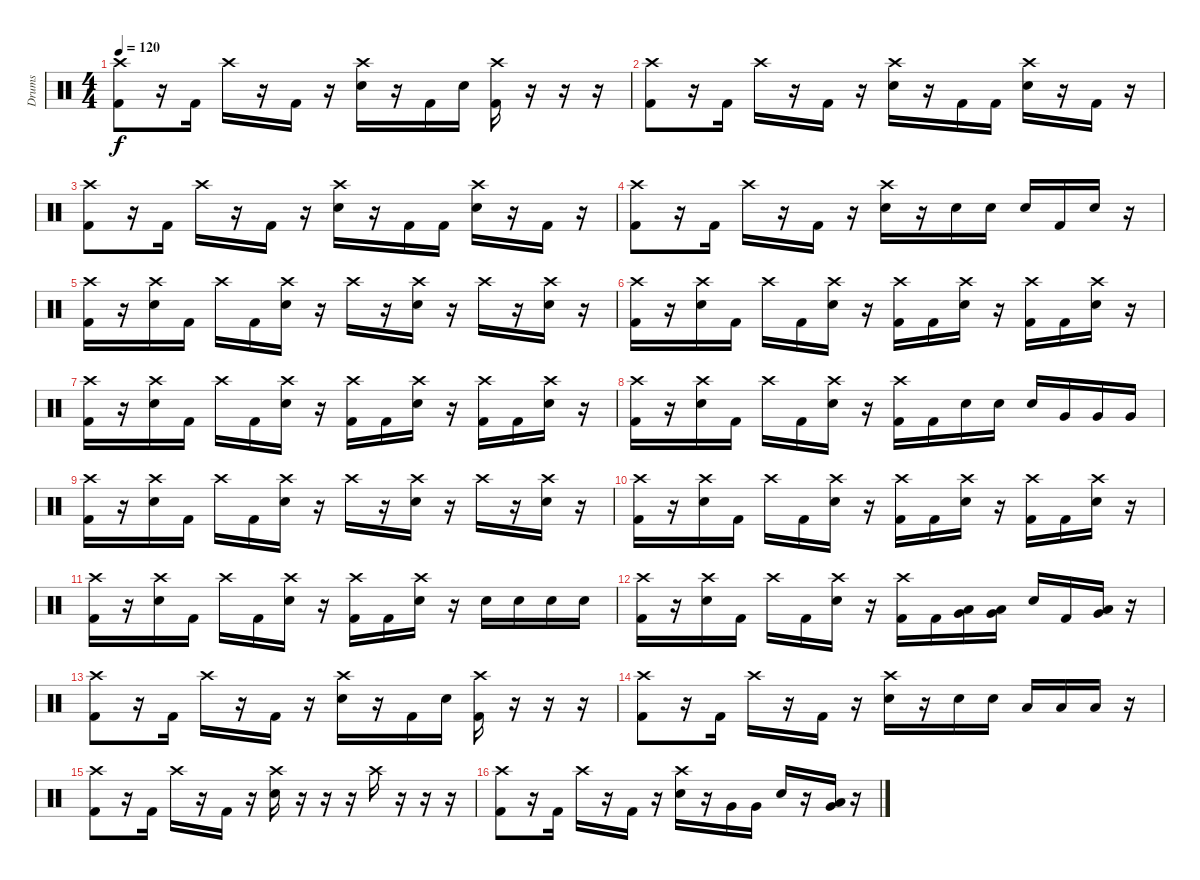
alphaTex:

\track ("Drums" "Drums") {instrument percussion}
\staff {score}
\articulation defaults
\ts (4 4)
\tempo 120
\clef neutral
\ks c
("Crash high (hit)" "Kick (hit) 2").8{dy f} r.16 "Kick (hit) 2".16 "Crash high (hit)".16 r.16 "Kick (hit) 2".16 r.16 ("Crash high (hit)" "Electric Snare (hit)").16 r.16 "Kick (hit) 2".16 "Electric Snare (hit)".16 ("Crash high (hit)" "Kick (hit) 2").16 r.16 r.16 r.16 |
("Crash high (hit)" "Kick (hit) 2").8 r.16 "Kick (hit) 2".16 "Crash high (hit)".16 r.16 "Kick (hit) 2".16 r.16 ("Crash high (hit)" "Electric Snare (hit)").16 r.16 "Kick (hit) 2".16 "Kick (hit) 2".16 ("Crash high (hit)" "Electric Snare (hit)").16 r.16 "Kick (hit) 2".16 r.16 |
("Crash high (hit)" "Kick (hit) 2").8 r.16 "Kick (hit) 2".16 "Crash high (hit)".16 r.16 "Kick (hit) 2".16 r.16 ("Crash high (hit)" "Electric Snare (hit)").16 r.16 "Kick (hit) 2".16 "Kick (hit) 2".16 ("Crash high (hit)" "Electric Snare (hit)").16 r.16 "Kick (hit) 2".16 r.16 |
("Crash high (hit)" "Kick (hit) 2").8 r.16 "Kick (hit) 2".16 "Crash high (hit)".16 r.16 "Kick (hit) 2".16 r.16 ("Crash high (hit)" "Electric Snare (hit)").16 r.16 "Electric Snare (hit)".16 "Electric Snare (hit)".16 "Electric Snare (hit)".16 "Kick (hit) 2".16 "Electric Snare (hit)".16 r.16 |
("Crash high (hit)" "Kick (hit) 2").16 r.16 ("Crash high (hit)" "Electric Snare (hit)").16 "Kick (hit) 2".16 "Crash high (hit)".16 "Kick (hit) 2".16 ("Crash high (hit)" "Electric Snare (hit)").16 r.16 "Crash high (hit)".16 r.16 ("Crash high (hit)" "Electric Snare (hit)").16 r.16 "Crash high (hit)".16 r.16 ("Crash high (hit)" "Electric Snare (hit)").16 r.16 |
("Crash high (hit)" "Kick (hit) 2").16 r.16 ("Crash high (hit)" "Electric Snare (hit)").16 "Kick (hit) 2".16 "Crash high (hit)".16 "Kick (hit) 2".16 ("Crash high (hit)" "Electric Snare (hit)").16 r.16 ("Crash high (hit)" "Kick (hit) 2").16 "Kick (hit) 2".16 ("Crash high (hit)" "Electric Snare (hit)").16 r.16 ("Crash high (hit)" "Kick (hit) 2").16 "Kick (hit) 2".16 ("Crash high (hit)" "Electric Snare (hit)").16 r.16 |
("Crash high (hit)" "Kick (hit) 2").16 r.16 ("Crash high (hit)" "Electric Snare (hit)").16 "Kick (hit) 2".16 "Crash high (hit)".16 "Kick (hit) 2".16 ("Crash high (hit)" "Electric Snare (hit)").16 r.16 ("Crash high (hit)" "Kick (hit) 2").16 "Kick (hit) 2".16 ("Crash high (hit)" "Electric Snare (hit)").16 r.16 ("Crash high (hit)" "Kick (hit) 2").16 "Kick (hit) 2".16 ("Crash high (hit)" "Electric Snare (hit)").16 r.16 |
("Crash high (hit)" "Kick (hit) 2").16 r.16 ("Crash high (hit)" "Electric Snare (hit)").16 "Kick (hit) 2".16 "Crash high (hit)".16 "Kick (hit) 2".16 ("Crash high (hit)" "Electric Snare (hit)").16 r.16 ("Crash high (hit)" "Kick (hit) 2").16 "Kick (hit) 2".16 "Electric Snare (hit)".16 "Electric Snare (hit)".16 "Electric Snare (hit)".16 "Very Low Tom (hit)".16 "Very Low Tom (hit)".16 "Very Low Tom (hit)".16 |
("Crash high (hit)" "Kick (hit) 2").16 r.16 ("Crash high (hit)" "Electric Snare (hit)").16 "Kick (hit) 2".16 "Crash high (hit)".16 "Kick (hit) 2".16 ("Crash high (hit)" "Electric Snare (hit)").16 r.16 "Crash high (hit)".16 r.16 ("Crash high (hit)" "Electric Snare (hit)").16 r.16 "Crash high (hit)".16 r.16 ("Crash high (hit)" "Electric Snare (hit)").16 r.16 |
("Crash high (hit)" "Kick (hit) 2").16 r.16 ("Crash high (hit)" "Electric Snare (hit)").16 "Kick (hit) 2".16 "Crash high (hit)".16 "Kick (hit) 2".16 ("Crash high (hit)" "Electric Snare (hit)").16 r.16 ("Crash high (hit)" "Kick (hit) 2").16 "Kick (hit) 2".16 ("Crash high (hit)" "Electric Snare (hit)").16 r.16 ("Crash high (hit)" "Kick (hit) 2").16 "Kick (hit) 2".16 ("Crash high (hit)" "Electric Snare (hit)").16 r.16 |
("Crash high (hit)" "Kick (hit) 2").16 r.16 ("Crash high (hit)" "Electric Snare (hit)").16 "Kick (hit) 2".16 "Crash high (hit)".16 "Kick (hit) 2".16 ("Crash high (hit)" "Electric Snare (hit)").16 r.16 ("Crash high (hit)" "Kick (hit) 2").16 "Kick (hit) 2".16 ("Crash high (hit)" "Electric Snare (hit)").16 r.16 "Electric Snare (hit)".16 "Electric Snare (hit)".16 "Electric Snare (hit)".16 "Electric Snare (hit)".16 |
("Crash high (hit)" "Kick (hit) 2").16 r.16 ("Crash high (hit)" "Electric Snare (hit)").16 "Kick (hit) 2".16 "Crash high (hit)".16 "Kick (hit) 2".16 ("Crash high (hit)" "Electric Snare (hit)").16 r.16 ("Crash high (hit)" "Kick (hit) 2").16 "Kick (hit) 2".16 ("Low Floor Tom (hit)" "Very Low Tom (hit)").16 ("Low Floor Tom (hit)" "Very Low Tom (hit)").16 "Electric Snare (hit)".16 "Kick (hit) 2".16 ("Low Floor Tom (hit)" "Very Low Tom (hit)").16 r.16 |
("Crash high (hit)" "Kick (hit) 2").8 r.16 "Kick (hit) 2".16 "Crash high (hit)".16 r.16 "Kick (hit) 2".16 r.16 ("Crash high (hit)" "Electric Snare (hit)").16 r.16 "Kick (hit) 2".16 "Electric Snare (hit)".16 ("Crash high (hit)" "Kick (hit) 2").16 r.16 r.16 r.16 |
("Crash high (hit)" "Kick (hit) 2").8 r.16 "Kick (hit) 2".16 "Crash high (hit)".16 r.16 "Kick (hit) 2".16 r.16 ("Crash high (hit)" "Electric Snare (hit)").16 r.16 "Electric Snare (hit)".16 "Electric Snare (hit)".16 "Low Tom (hit)".16 "Low Tom (hit)".16 "Low Floor Tom (hit)".16 r.16 |
("Crash high (hit)" "Kick (hit) 2").8 r.16 "Kick (hit) 2".16 "Crash high (hit)".16 r.16 "Kick (hit) 2".16 r.16 ("Crash high (hit)" "Electric Snare (hit)").16 r.16 r.16 r.16 "Crash high (hit)".16 r.16 r.16 r.16 |
("Crash high (hit)" "Kick (hit) 2").8 r.16 "Kick (hit) 2".16 "Crash high (hit)".16 r.16 "Kick (hit) 2".16 r.16 ("Crash high (hit)" "Electric Snare (hit)").16 r.16 "Very Low Tom (hit)".16 "Very Low Tom (hit)".16 "Electric Snare (hit)".16 r.16 ("Very Low Tom (hit)" "Low Floor Tom (hit)").16 r.16
